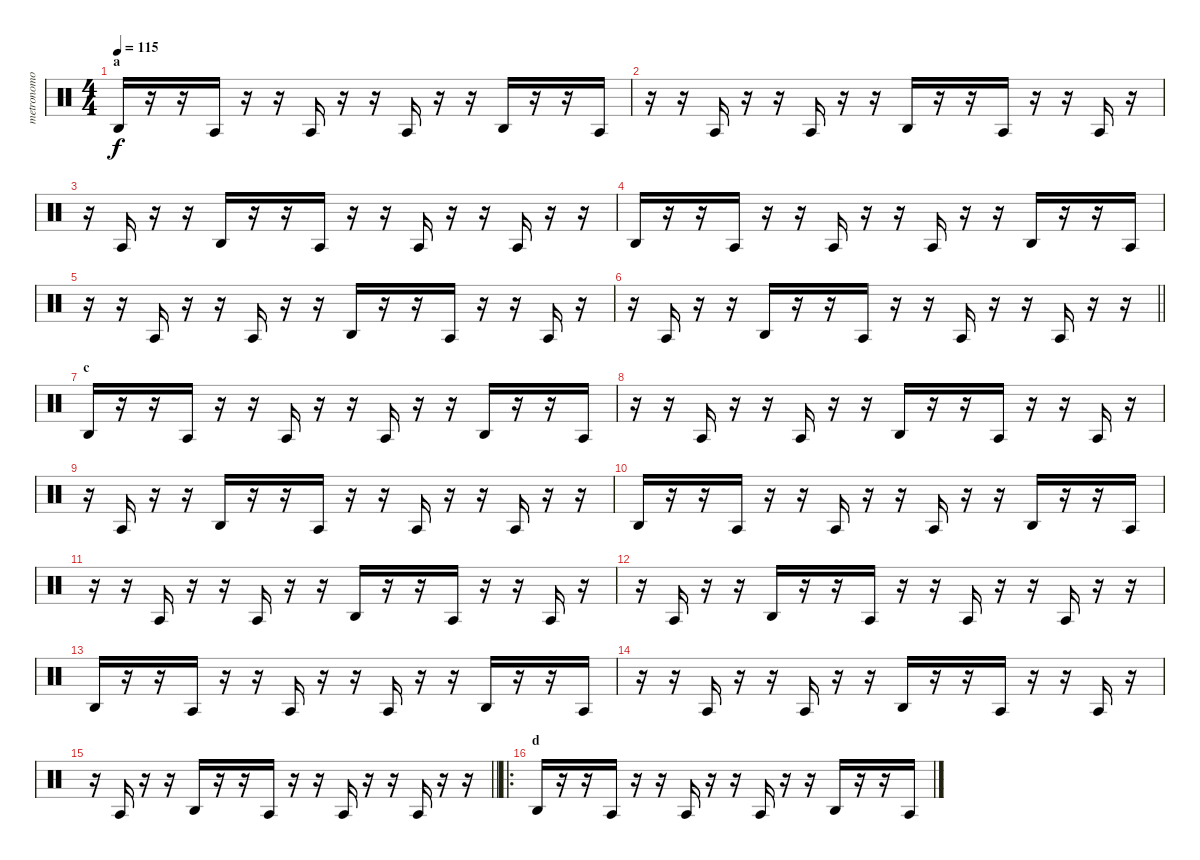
\track ("metronomo" "metronomo") {instrument percussion}
\staff {score}
\articulation defaults
\ts (4 4)
\section ("" "a")
\tempo 115
\clef neutral
\ks c "Agogo high (hit)".16{dy f}
r.16 r.16 "Agogo tow (hit)".16 r.16 r.16 "Agogo tow (hit)".16 r.16 r.16 "Agogo tow (hit)".16 r.16 r.16 "Agogo high (hit)".16 r.16 r.16 "Agogo tow (hit)".16 |
r.16 r.16 "Agogo tow (hit)".16 r.16 r.16 "Agogo tow (hit)".16 r.16 r.16 "Agogo high (hit)".16 r.16 r.16 "Agogo tow (hit)".16 r.16 r.16 "Agogo tow (hit)".16 r.16 |
r.16 "Agogo tow (hit)".16 r.16 r.16 "Agogo high (hit)".16 r.16 r.16 "Agogo tow (hit)".16 r.16 r.16 "Agogo tow (hit)".16 r.16 r.16 "Agogo tow (hit)".16 r.16 r.16 |
"Agogo high (hit)".16 r.16 r.16 "Agogo tow (hit)".16 r.16 r.16 "Agogo tow (hit)".16 r.16 r.16 "Agogo tow (hit)".16 r.16 r.16 "Agogo high (hit)".16 r.16 r.16 "Agogo tow (hit)".16 |
r.16 r.16 "Agogo tow (hit)".16 r.16 r.16 "Agogo tow (hit)".16 r.16 r.16 "Agogo high (hit)".16 r.16 r.16 "Agogo tow (hit)".16 r.16 r.16 "Agogo tow (hit)".16 r.16 |
\barLineRight lightlight
r.16 "Agogo tow (hit)".16 r.16 r.16 "Agogo high (hit)".16 r.16 r.16 "Agogo tow (hit)".16 r.16 r.16 "Agogo tow (hit)".16 r.16 r.16 "Agogo tow (hit)".16 r.16 r.16 |
\section ("" "c")
"Agogo high (hit)".16 r.16 r.16 "Agogo tow (hit)".16 r.16 r.16 "Agogo tow (hit)".16 r.16 r.16 "Agogo tow (hit)".16 r.16 r.16 "Agogo high (hit)".16 r.16 r.16 "Agogo tow (hit)".16 |
r.16 r.16 "Agogo tow (hit)".16 r.16 r.16 "Agogo tow (hit)".16 r.16 r.16 "Agogo high (hit)".16 r.16 r.16 "Agogo tow (hit)".16 r.16 r.16 "Agogo tow (hit)".16 r.16 |
r.16 "Agogo tow (hit)".16 r.16 r.16 "Agogo high (hit)".16 r.16 r.16 "Agogo tow (hit)".16 r.16 r.16 "Agogo tow (hit)".16 r.16 r.16 "Agogo tow (hit)".16 r.16 r.16 |
"Agogo high (hit)".16 r.16 r.16 "Agogo tow (hit)".16 r.16 r.16 "Agogo tow (hit)".16 r.16 r.16 "Agogo tow (hit)".16 r.16 r.16 "Agogo high (hit)".16 r.16 r.16 "Agogo tow (hit)".16 |
r.16 r.16 "Agogo tow (hit)".16 r.16 r.16 "Agogo tow (hit)".16 r.16 r.16 "Agogo high (hit)".16 r.16 r.16 "Agogo tow (hit)".16 r.16 r.16 "Agogo tow (hit)".16 r.16 |
r.16 "Agogo tow (hit)".16 r.16 r.16 "Agogo high (hit)".16 r.16 r.16 "Agogo tow (hit)".16 r.16 r.16 "Agogo tow (hit)".16 r.16 r.16 "Agogo tow (hit)".16 r.16 r.16 |
"Agogo high (hit)".16 r.16 r.16 "Agogo tow (hit)".16 r.16 r.16 "Agogo tow (hit)".16 r.16 r.16 "Agogo tow (hit)".16 r.16 r.16 "Agogo high (hit)".16 r.16 r.16 "Agogo tow (hit)".16 |
r.16 r.16 "Agogo tow (hit)".16 r.16 r.16 "Agogo tow (hit)".16 r.16 r.16 "Agogo high (hit)".16 r.16 r.16 "Agogo tow (hit)".16 r.16 r.16 "Agogo tow (hit)".16 r.16 |
\barLineRight lightlight
r.16 "Agogo tow (hit)".16 r.16 r.16 "Agogo high (hit)".16 r.16 r.16 "Agogo tow (hit)".16 r.16 r.16 "Agogo tow (hit)".16 r.16 r.16 "Agogo tow (hit)".16 r.16 r.16 |
\ro
\section ("" "d")
"Agogo high (hit)".16 r.16 r.16 "Agogo tow (hit)".16 r.16 r.16 "Agogo tow (hit)".16 r.16 r.16 "Agogo tow (hit)".16 r.16 r.16 "Agogo high (hit)".16 r.16 r.16 "Agogo tow (hit)".16
